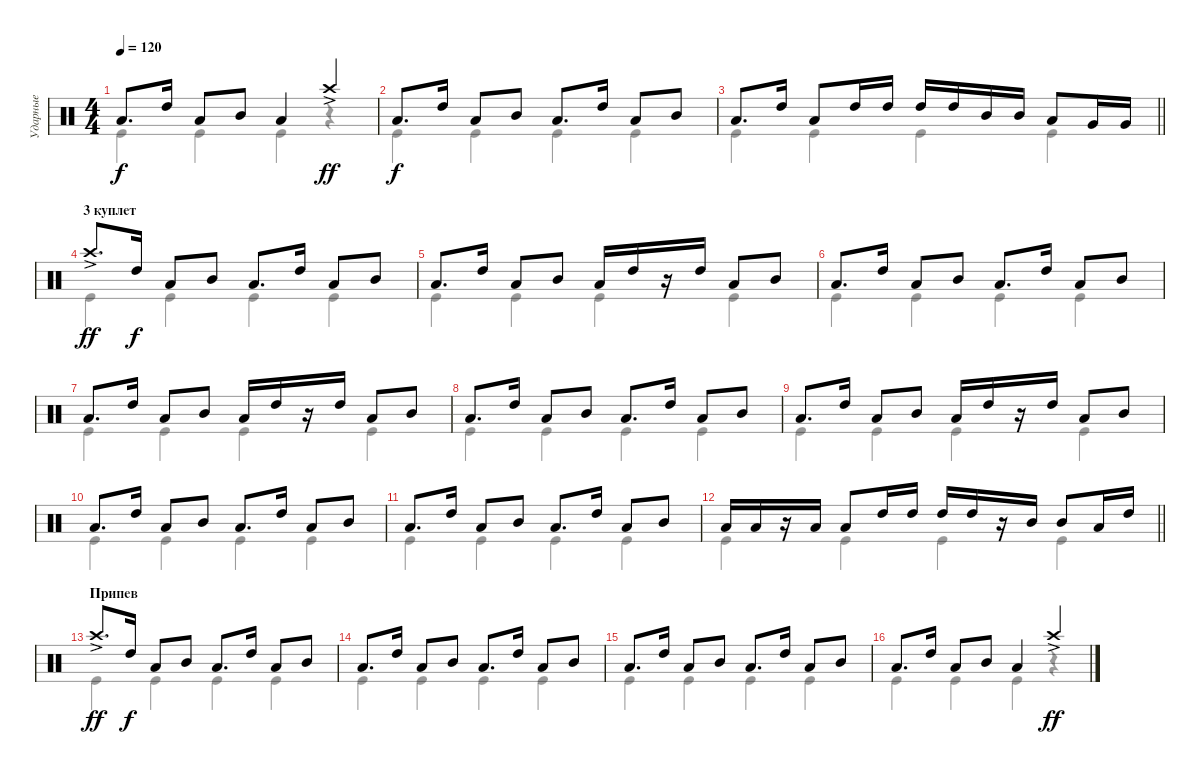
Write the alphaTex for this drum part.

\track ("Ударные" "Ударные") {instrument percussion}
\staff {score}
\articulation defaults
\voice
\ts (4 4)
\tempo 120
\clef neutral
\ks c "Low Tom (hit)".8{d dy f} "High Tom (hit)".16 "Low Tom (hit)".8 "Mid Tom (hit)".8 "Low Tom (hit)".4 "Crash high (hit)"{ac}.4{dy ff}
|
"Low Tom (hit)".8{d dy f} "High Tom (hit)".16 "Low Tom (hit)".8 "Mid Tom (hit)".8 "Low Tom (hit)".8{d} "High Tom (hit)".16 "Low Tom (hit)".8 "Mid Tom (hit)".8 |
\barLineRight lightlight "Low Tom (hit)".8{d} "High Tom (hit)".16 "Low Tom (hit)".8 "High Tom (hit)".16 "High Tom (hit)".16 "High Tom (hit)".16 "High Tom (hit)".16 "Mid Tom (hit)".16 "Mid Tom (hit)".16 "Low Tom (hit)".8 "Very Low Tom (hit)".16 "Very Low Tom (hit)".16
|
\section ("" "3 куплет")
"Crash high (hit)"{ac}.8{d dy ff} "High Tom (hit)".16{dy f} "Low Tom (hit)".8 "Mid Tom (hit)".8 "Low Tom (hit)".8{d} "High Tom (hit)".16 "Low Tom (hit)".8 "Mid Tom (hit)".8 |
"Low Tom (hit)".8{d} "High Tom (hit)".16 "Low Tom (hit)".8 "Mid Tom (hit)".8 "Low Tom (hit)".16 "High Tom (hit)".16 r.16 "High Tom (hit)".16 "Low Tom (hit)".8 "Mid Tom (hit)".8 |
"Low Tom (hit)".8{d} "High Tom (hit)".16 "Low Tom (hit)".8 "Mid Tom (hit)".8 "Low Tom (hit)".8{d} "High Tom (hit)".16 "Low Tom (hit)".8 "Mid Tom (hit)".8 |
"Low Tom (hit)".8{d} "High Tom (hit)".16 "Low Tom (hit)".8 "Mid Tom (hit)".8 "Low Tom (hit)".16 "High Tom (hit)".16 r.16 "High Tom (hit)".16 "Low Tom (hit)".8 "Mid Tom (hit)".8 |
"Low Tom (hit)".8{d} "High Tom (hit)".16 "Low Tom (hit)".8 "Mid Tom (hit)".8 "Low Tom (hit)".8{d} "High Tom (hit)".16 "Low Tom (hit)".8 "Mid Tom (hit)".8 |
"Low Tom (hit)".8{d} "High Tom (hit)".16 "Low Tom (hit)".8 "Mid Tom (hit)".8 "Low Tom (hit)".16 "High Tom (hit)".16 r.16 "High Tom (hit)".16 "Low Tom (hit)".8 "Mid Tom (hit)".8 |
"Low Tom (hit)".8{d} "High Tom (hit)".16 "Low Tom (hit)".8 "Mid Tom (hit)".8 "Low Tom (hit)".8{d} "High Tom (hit)".16 "Low Tom (hit)".8 "Mid Tom (hit)".8 |
"Low Tom (hit)".8{d} "High Tom (hit)".16 "Low Tom (hit)".8 "Mid Tom (hit)".8 "Low Tom (hit)".8{d} "High Tom (hit)".16 "Low Tom (hit)".8 "Mid Tom (hit)".8 |
\barLineRight lightlight "Low Tom (hit)".16 "Low Tom (hit)".16
r.16 "Low Tom (hit)".16 "Low Tom (hit)".8 "High Tom (hit)".16 "High Tom (hit)".16 "High Tom (hit)".16 "High Tom (hit)".16 r.16 "Mid Tom (hit)".16 "Mid Tom (hit)".8 "Low Tom (hit)".16 "High Tom (hit)".16 |
\section ("" "Припев")
"Crash high (hit)"{ac}.8{d dy ff} "High Tom (hit)".16{dy f} "Low Tom (hit)".8 "Mid Tom (hit)".8 "Low Tom (hit)".8{d} "High Tom (hit)".16 "Low Tom (hit)".8 "Mid Tom (hit)".8 |
"Low Tom (hit)".8{d} "High Tom (hit)".16 "Low Tom (hit)".8 "Mid Tom (hit)".8 "Low Tom (hit)".8{d} "High Tom (hit)".16 "Low Tom (hit)".8 "Mid Tom (hit)".8 |
"Low Tom (hit)".8{d} "High Tom (hit)".16 "Low Tom (hit)".8 "Mid Tom (hit)".8 "Low Tom (hit)".8{d} "High Tom (hit)".16 "Low Tom (hit)".8 "Mid Tom (hit)".8 |
"Low Tom (hit)".8{d} "High Tom (hit)".16 "Low Tom (hit)".8 "Mid Tom (hit)".8 "Low Tom (hit)".4 "Crash high (hit)"{ac}.4{dy ff}
\voice
\clef neutral
\ottava regular
\simile none
\ks c "Kick (hit)".4{dy f} "Kick (hit)".4 "Kick (hit)".4
r.4 |
"Kick (hit)".4 "Kick (hit)".4 "Kick (hit)".4 "Kick (hit)".4 |
\barLineRight lightlight "Kick (hit)".4 "Kick (hit)".4 "Kick (hit)".4 "Kick (hit)".4
|
"Kick (hit)".4 "Kick (hit)".4 "Kick (hit)".4 "Kick (hit)".4 |
"Kick (hit)".4 "Kick (hit)".4 "Kick (hit)".4 "Kick (hit)".4 |
"Kick (hit)".4 "Kick (hit)".4 "Kick (hit)".4 "Kick (hit)".4 |
"Kick (hit)".4 "Kick (hit)".4 "Kick (hit)".4 "Kick (hit)".4 |
"Kick (hit)".4 "Kick (hit)".4 "Kick (hit)".4 "Kick (hit)".4 |
"Kick (hit)".4 "Kick (hit)".4 "Kick (hit)".4 "Kick (hit)".4 |
"Kick (hit)".4 "Kick (hit)".4 "Kick (hit)".4 "Kick (hit)".4 |
"Kick (hit)".4 "Kick (hit)".4 "Kick (hit)".4 "Kick (hit)".4 |
\barLineRight lightlight "Kick (hit)".4 "Kick (hit)".4 "Kick (hit)".4 "Kick (hit)".4
|
"Kick (hit)".4 "Kick (hit)".4 "Kick (hit)".4 "Kick (hit)".4 |
"Kick (hit)".4 "Kick (hit)".4 "Kick (hit)".4 "Kick (hit)".4 |
"Kick (hit)".4 "Kick (hit)".4 "Kick (hit)".4 "Kick (hit)".4 |
"Kick (hit)".4 "Kick (hit)".4 "Kick (hit)".4 r.4
